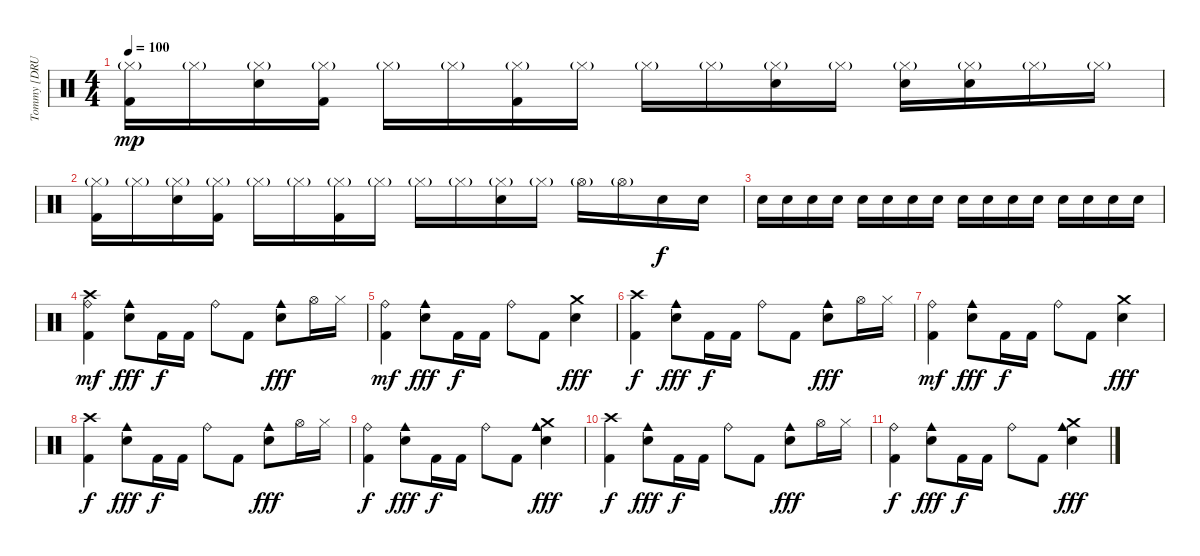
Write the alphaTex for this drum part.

\track ("Tommy [DRUMS]" "Tommy [DRU") {instrument percussion}
\staff {score}
\articulation defaults
\ts (4 4)
\tempo 100
\clef neutral
\ks c
("Hi-Hat (closed)"{g} "Kick (hit) 2").16{dy mp} "Hi-Hat (closed)"{g}.16 ("Hi-Hat (closed)"{g} "Snare (hit) 2").16 ("Hi-Hat (closed)"{g} "Kick (hit) 2").16 "Hi-Hat (closed)"{g}.16 "Hi-Hat (closed)"{g}.16 ("Hi-Hat (closed)"{g} "Kick (hit) 2").16 "Hi-Hat (closed)"{g}.16 "Hi-Hat (closed)"{g}.16 "Hi-Hat (closed)"{g}.16 ("Hi-Hat (closed)"{g} "Snare (hit) 2").16 "Hi-Hat (closed)"{g}.16 ("Hi-Hat (closed)"{g} "Snare (hit) 2").16 ("Hi-Hat (closed)"{g} "Snare (hit) 2").16 "Hi-Hat (closed)"{g}.16 "Hi-Hat (closed)"{g}.16 |
("Hi-Hat (closed)"{g} "Kick (hit) 2").16 "Hi-Hat (closed)"{g}.16 ("Hi-Hat (closed)"{g} "Snare (hit) 2").16 ("Hi-Hat (closed)"{g} "Kick (hit) 2").16 "Hi-Hat (closed)"{g}.16 "Hi-Hat (closed)"{g}.16 ("Hi-Hat (closed)"{g} "Kick (hit) 2").16 "Hi-Hat (closed)"{g}.16 "Hi-Hat (closed)"{g}.16 "Hi-Hat (closed)"{g}.16 ("Hi-Hat (closed)"{g} "Snare (hit) 2").16 "Hi-Hat (closed)"{g}.16 "Hi-Hat (open)"{g}.16 "Hi-Hat (open)"{g}.16 "Snare (hit) 2".16{dy f} "Snare (hit) 2".16 |
"Snare (hit) 2".16 "Snare (hit) 2".16 "Snare (hit) 2".16 "Snare (hit) 2".16 "Snare (hit) 2".16 "Snare (hit) 2".16 "Snare (hit) 2".16 "Snare (hit) 2".16 "Snare (hit) 2".16 "Snare (hit) 2".16 "Snare (hit) 2".16 "Snare (hit) 2".16 "Snare (hit) 2".16 "Snare (hit) 2".16 "Snare (hit) 2".16 "Snare (hit) 2".16 |
("Crash high (hit)" "Ride (bell)" "Kick (hit) 2").4{dy mf} ("Cowbell medium (hit)" "Snare (hit) 2").8{dy fff} "Kick (hit) 2".16{dy f} "Kick (hit) 2".16 "Ride (bell)".8 "Kick (hit) 2".8 ("Cowbell medium (hit)" "Snare (hit) 2").8{dy fff} "Hi-Hat (open)".16 "Hi-Hat (closed)".16 |
("Ride (bell)" "Kick (hit) 2").4{dy mf} ("Cowbell medium (hit)" "Snare (hit) 2").8{dy fff} "Kick (hit) 2".16{dy f} "Kick (hit) 2".16 "Ride (bell)".8 "Kick (hit) 2".8 ("Crash medium (hit)" "Snare (hit) 2").4{dy fff} |
("Crash high (hit)" "Kick (hit) 2").4{dy f} ("Cowbell medium (hit)" "Snare (hit) 2").8{dy fff} "Kick (hit) 2".16{dy f} "Kick (hit) 2".16 "Ride (bell)".8 "Kick (hit) 2".8 ("Cowbell medium (hit)" "Snare (hit) 2").8{dy fff} "Hi-Hat (open)".16 "Hi-Hat (closed)".16 |
("Ride (bell)" "Kick (hit) 2").4{dy mf} ("Cowbell medium (hit)" "Snare (hit) 2").8{dy fff} "Kick (hit) 2".16{dy f} "Kick (hit) 2".16 "Ride (bell)".8 "Kick (hit) 2".8 ("Crash medium (hit)" "Snare (hit) 2").4{dy fff} |
("Crash high (hit)" "Kick (hit) 2").4{dy f} ("Cowbell medium (hit)" "Snare (hit) 2").8{dy fff} "Kick (hit) 2".16{dy f} "Kick (hit) 2".16 "Ride (bell)".8 "Kick (hit) 2".8 ("Cowbell medium (hit)" "Snare (hit) 2").8{dy fff} "Hi-Hat (open)".16 "Hi-Hat (closed)".16 |
("Ride (bell)" "Kick (hit) 2").4{dy f} ("Cowbell medium (hit)" "Snare (hit) 2").8{dy fff} "Kick (hit) 2".16{dy f} "Kick (hit) 2".16 "Ride (bell)".8 "Kick (hit) 2".8 ("Crash medium (hit)" "Cowbell medium (hit)" "Snare (hit) 2").4{dy fff} |
("Crash high (hit)" "Kick (hit) 2").4{dy f} ("Cowbell medium (hit)" "Snare (hit) 2").8{dy fff} "Kick (hit) 2".16{dy f} "Kick (hit) 2".16 "Ride (bell)".8 "Kick (hit) 2".8 ("Cowbell medium (hit)" "Snare (hit) 2").8{dy fff} "Hi-Hat (open)".16 "Hi-Hat (closed)".16 |
("Ride (bell)" "Kick (hit) 2").4{dy f} ("Cowbell medium (hit)" "Snare (hit) 2").8{dy fff} "Kick (hit) 2".16{dy f} "Kick (hit) 2".16 "Ride (bell)".8 "Kick (hit) 2".8 ("Crash medium (hit)" "Cowbell medium (hit)" "Snare (hit) 2").4{dy fff}
